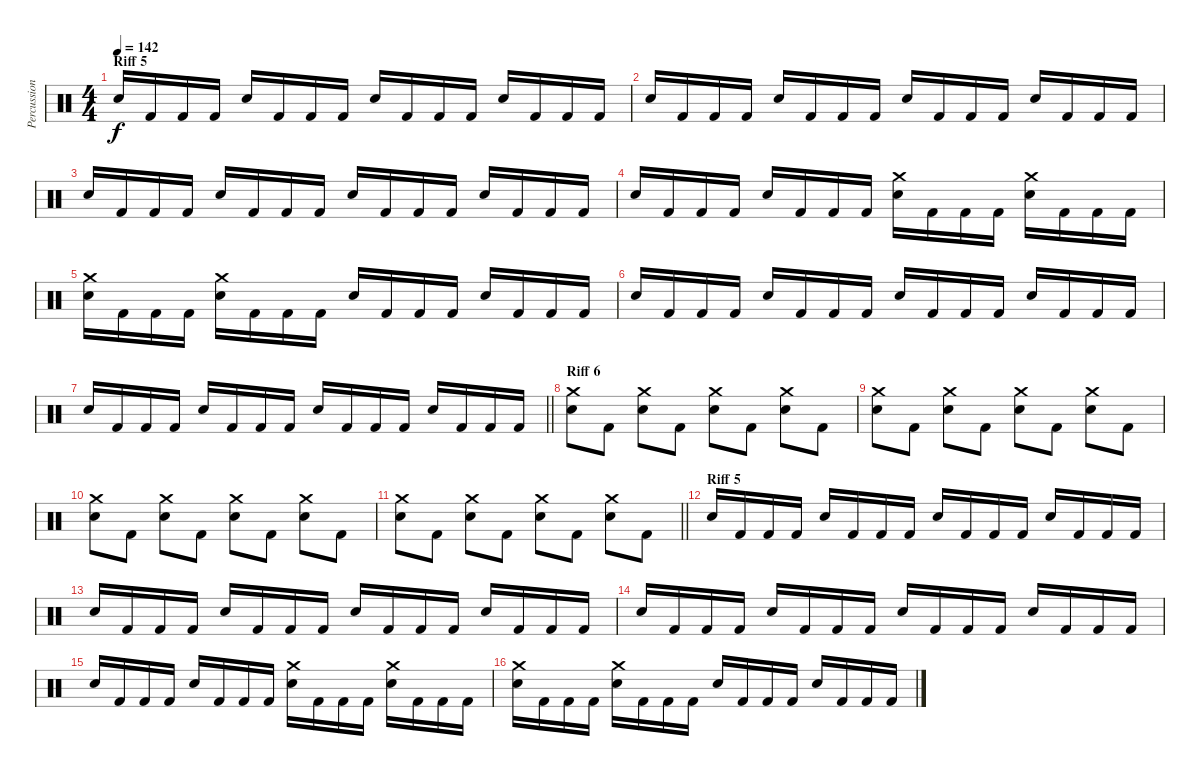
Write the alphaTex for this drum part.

\track ("Percussions" "Percussion") {instrument percussion}
\staff {score}
\articulation defaults
\ts (4 4)
\section ("" "Riff 5")
\tempo 142
\clef neutral
\ks c "Electric Snare (hit)".16{dy f} "Kick (hit) 2".16 "Kick (hit) 2".16 "Kick (hit) 2".16 "Electric Snare (hit)".16 "Kick (hit) 2".16 "Kick (hit) 2".16 "Kick (hit) 2".16 "Electric Snare (hit)".16 "Kick (hit) 2".16 "Kick (hit) 2".16 "Kick (hit) 2".16 "Electric Snare (hit)".16 "Kick (hit) 2".16 "Kick (hit) 2".16 "Kick (hit) 2".16
|
"Electric Snare (hit)".16 "Kick (hit) 2".16 "Kick (hit) 2".16 "Kick (hit) 2".16 "Electric Snare (hit)".16 "Kick (hit) 2".16 "Kick (hit) 2".16 "Kick (hit) 2".16 "Electric Snare (hit)".16 "Kick (hit) 2".16 "Kick (hit) 2".16 "Kick (hit) 2".16 "Electric Snare (hit)".16 "Kick (hit) 2".16 "Kick (hit) 2".16 "Kick (hit) 2".16 |
"Electric Snare (hit)".16 "Kick (hit) 2".16 "Kick (hit) 2".16 "Kick (hit) 2".16 "Electric Snare (hit)".16 "Kick (hit) 2".16 "Kick (hit) 2".16 "Kick (hit) 2".16 "Electric Snare (hit)".16 "Kick (hit) 2".16 "Kick (hit) 2".16 "Kick (hit) 2".16 "Electric Snare (hit)".16 "Kick (hit) 2".16 "Kick (hit) 2".16 "Kick (hit) 2".16 |
"Electric Snare (hit)".16 "Kick (hit) 2".16 "Kick (hit) 2".16 "Kick (hit) 2".16 "Electric Snare (hit)".16 "Kick (hit) 2".16 "Kick (hit) 2".16 "Kick (hit) 2".16 ("Crash medium (hit)" "Electric Snare (hit)").16 "Kick (hit) 2".16 "Kick (hit) 2".16 "Kick (hit) 2".16 ("Crash medium (hit)" "Electric Snare (hit)").16 "Kick (hit) 2".16 "Kick (hit) 2".16 "Kick (hit) 2".16 |
("Crash medium (hit)" "Electric Snare (hit)").16 "Kick (hit) 2".16 "Kick (hit) 2".16 "Kick (hit) 2".16 ("Crash medium (hit)" "Electric Snare (hit)").16 "Kick (hit) 2".16 "Kick (hit) 2".16 "Kick (hit) 2".16 "Electric Snare (hit)".16 "Kick (hit) 2".16 "Kick (hit) 2".16 "Kick (hit) 2".16 "Electric Snare (hit)".16 "Kick (hit) 2".16 "Kick (hit) 2".16 "Kick (hit) 2".16 |
"Electric Snare (hit)".16 "Kick (hit) 2".16 "Kick (hit) 2".16 "Kick (hit) 2".16 "Electric Snare (hit)".16 "Kick (hit) 2".16 "Kick (hit) 2".16 "Kick (hit) 2".16 "Electric Snare (hit)".16 "Kick (hit) 2".16 "Kick (hit) 2".16 "Kick (hit) 2".16 "Electric Snare (hit)".16 "Kick (hit) 2".16 "Kick (hit) 2".16 "Kick (hit) 2".16 |
\barLineRight lightlight "Electric Snare (hit)".16 "Kick (hit) 2".16 "Kick (hit) 2".16 "Kick (hit) 2".16 "Electric Snare (hit)".16 "Kick (hit) 2".16 "Kick (hit) 2".16 "Kick (hit) 2".16 "Electric Snare (hit)".16 "Kick (hit) 2".16 "Kick (hit) 2".16 "Kick (hit) 2".16 "Electric Snare (hit)".16 "Kick (hit) 2".16 "Kick (hit) 2".16 "Kick (hit) 2".16
|
\section ("" "Riff 6")
("Crash medium (hit)" "Electric Snare (hit)").8 "Kick (hit) 2".8 ("Crash medium (hit)" "Electric Snare (hit)").8 "Kick (hit) 2".8 ("Crash medium (hit)" "Electric Snare (hit)").8 "Kick (hit) 2".8 ("Crash medium (hit)" "Electric Snare (hit)").8 "Kick (hit) 2".8 |
("Crash medium (hit)" "Electric Snare (hit)").8 "Kick (hit) 2".8 ("Crash medium (hit)" "Electric Snare (hit)").8 "Kick (hit) 2".8 ("Crash medium (hit)" "Electric Snare (hit)").8 "Kick (hit) 2".8 ("Crash medium (hit)" "Electric Snare (hit)").8 "Kick (hit) 2".8 |
("Crash medium (hit)" "Electric Snare (hit)").8 "Kick (hit) 2".8 ("Crash medium (hit)" "Electric Snare (hit)").8 "Kick (hit) 2".8 ("Crash medium (hit)" "Electric Snare (hit)").8 "Kick (hit) 2".8 ("Crash medium (hit)" "Electric Snare (hit)").8 "Kick (hit) 2".8 |
\barLineRight lightlight
("Crash medium (hit)" "Electric Snare (hit)").8 "Kick (hit) 2".8 ("Crash medium (hit)" "Electric Snare (hit)").8 "Kick (hit) 2".8 ("Crash medium (hit)" "Electric Snare (hit)").8 "Kick (hit) 2".8 ("Crash medium (hit)" "Electric Snare (hit)").8 "Kick (hit) 2".8 |
\section ("" "Riff 5")
"Electric Snare (hit)".16 "Kick (hit) 2".16 "Kick (hit) 2".16 "Kick (hit) 2".16 "Electric Snare (hit)".16 "Kick (hit) 2".16 "Kick (hit) 2".16 "Kick (hit) 2".16 "Electric Snare (hit)".16 "Kick (hit) 2".16 "Kick (hit) 2".16 "Kick (hit) 2".16 "Electric Snare (hit)".16 "Kick (hit) 2".16 "Kick (hit) 2".16 "Kick (hit) 2".16 |
"Electric Snare (hit)".16 "Kick (hit) 2".16 "Kick (hit) 2".16 "Kick (hit) 2".16 "Electric Snare (hit)".16 "Kick (hit) 2".16 "Kick (hit) 2".16 "Kick (hit) 2".16 "Electric Snare (hit)".16 "Kick (hit) 2".16 "Kick (hit) 2".16 "Kick (hit) 2".16 "Electric Snare (hit)".16 "Kick (hit) 2".16 "Kick (hit) 2".16 "Kick (hit) 2".16 |
"Electric Snare (hit)".16 "Kick (hit) 2".16 "Kick (hit) 2".16 "Kick (hit) 2".16 "Electric Snare (hit)".16 "Kick (hit) 2".16 "Kick (hit) 2".16 "Kick (hit) 2".16 "Electric Snare (hit)".16 "Kick (hit) 2".16 "Kick (hit) 2".16 "Kick (hit) 2".16 "Electric Snare (hit)".16 "Kick (hit) 2".16 "Kick (hit) 2".16 "Kick (hit) 2".16 |
"Electric Snare (hit)".16 "Kick (hit) 2".16 "Kick (hit) 2".16 "Kick (hit) 2".16 "Electric Snare (hit)".16 "Kick (hit) 2".16 "Kick (hit) 2".16 "Kick (hit) 2".16 ("Crash medium (hit)" "Electric Snare (hit)").16 "Kick (hit) 2".16 "Kick (hit) 2".16 "Kick (hit) 2".16 ("Crash medium (hit)" "Electric Snare (hit)").16 "Kick (hit) 2".16 "Kick (hit) 2".16 "Kick (hit) 2".16 |
("Crash medium (hit)" "Electric Snare (hit)").16 "Kick (hit) 2".16 "Kick (hit) 2".16 "Kick (hit) 2".16 ("Crash medium (hit)" "Electric Snare (hit)").16 "Kick (hit) 2".16 "Kick (hit) 2".16 "Kick (hit) 2".16 "Electric Snare (hit)".16 "Kick (hit) 2".16 "Kick (hit) 2".16 "Kick (hit) 2".16 "Electric Snare (hit)".16 "Kick (hit) 2".16 "Kick (hit) 2".16 "Kick (hit) 2".16
